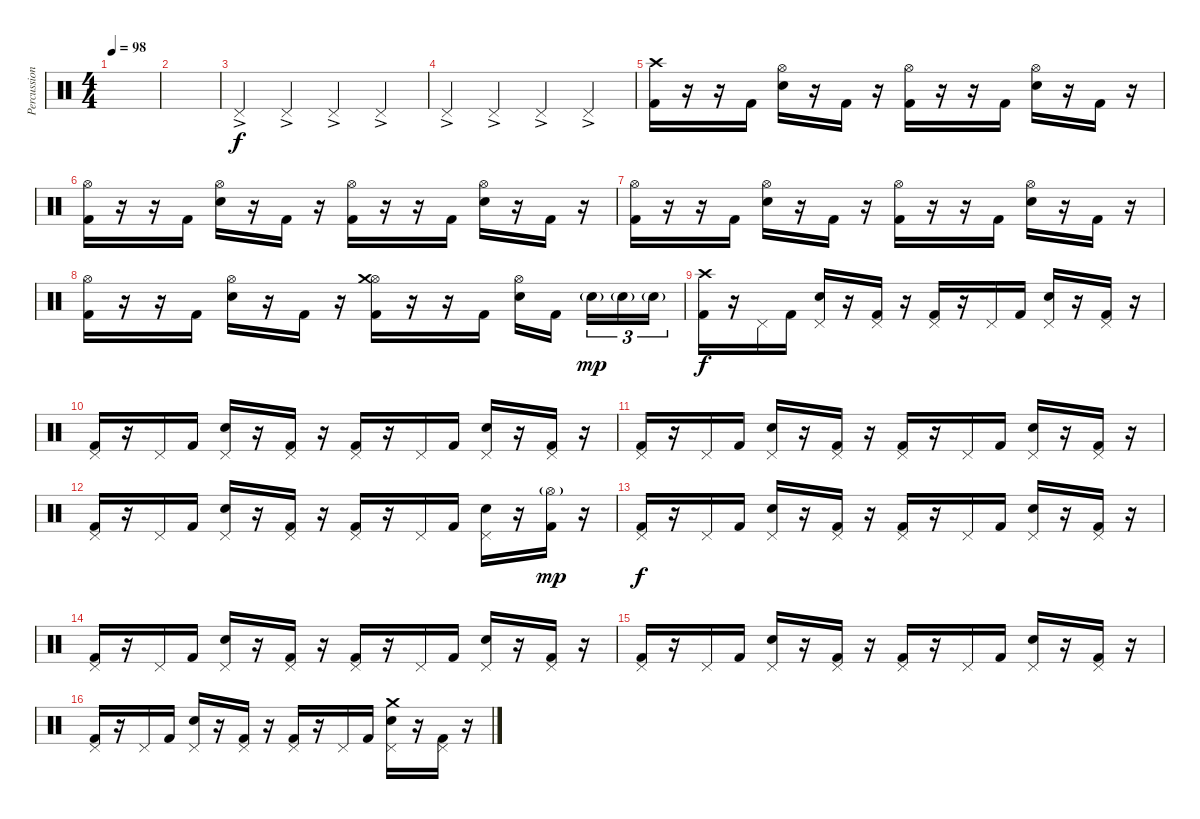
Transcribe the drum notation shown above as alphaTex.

\track ("Percussions" "Percussion") {instrument percussion}
\staff {score}
\articulation defaults
\ts (4 4)
\tempo 98
\clef neutral
\ks c
|
|
"Pedal Hi-Hat (hit)"{ac}.4 "Pedal Hi-Hat (hit)"{ac}.4 "Pedal Hi-Hat (hit)"{ac}.4 "Pedal Hi-Hat (hit)"{ac}.4 |
"Pedal Hi-Hat (hit)"{ac}.4 "Pedal Hi-Hat (hit)"{ac}.4 "Pedal Hi-Hat (hit)"{ac}.4 "Pedal Hi-Hat (hit)"{ac}.4 |
("Crash high (hit)" "Kick (hit) 2").16{dy f} r.16 r.16 "Kick (hit) 2".16 ("Hi-Hat (open)" "Snare (hit) 2").16 r.16 "Kick (hit) 2".16 r.16 ("Hi-Hat (open)" "Kick (hit) 2").16 r.16 r.16 "Kick (hit) 2".16 ("Hi-Hat (open)" "Snare (hit) 2").16 r.16 "Kick (hit) 2".16 r.16 |
("Hi-Hat (open)" "Kick (hit) 2").16 r.16 r.16 "Kick (hit) 2".16 ("Hi-Hat (open)" "Snare (hit) 2").16 r.16 "Kick (hit) 2".16 r.16 ("Hi-Hat (open)" "Kick (hit) 2").16 r.16 r.16 "Kick (hit) 2".16 ("Hi-Hat (open)" "Snare (hit) 2").16 r.16 "Kick (hit) 2".16 r.16 |
("Hi-Hat (open)" "Kick (hit) 2").16 r.16 r.16 "Kick (hit) 2".16 ("Hi-Hat (open)" "Snare (hit) 2").16 r.16 "Kick (hit) 2".16 r.16 ("Hi-Hat (open)" "Kick (hit) 2").16 r.16 r.16 "Kick (hit) 2".16 ("Hi-Hat (open)" "Snare (hit) 2").16 r.16 "Kick (hit) 2".16 r.16 |
("Hi-Hat (open)" "Kick (hit) 2").16 r.16 r.16 "Kick (hit) 2".16 ("Hi-Hat (open)" "Snare (hit) 2").16 r.16 "Kick (hit) 2".16 r.16 ("Hi-Hat (open)" "Crash medium (hit)" "Kick (hit) 2").16 r.16 r.16 "Kick (hit) 2".16 ("Hi-Hat (open)" "Snare (hit) 2").16 "Kick (hit) 2".16 "Snare (hit) 2"{g}.16{tu (3 2) dy mp} "Snare (hit) 2"{g}.16{tu (3 2)} "Snare (hit) 2"{g}.16{tu (3 2)} |
("Crash high (hit)" "Kick (hit) 2").16{dy f} r.16 "Pedal Hi-Hat (hit)".16 "Kick (hit) 2".16 ("Pedal Hi-Hat (hit)" "Snare (hit) 2").16 r.16 ("Pedal Hi-Hat (hit)" "Kick (hit) 2").16 r.16 ("Pedal Hi-Hat (hit)" "Kick (hit) 2").16 r.16 "Pedal Hi-Hat (hit)".16 "Kick (hit) 2".16 ("Pedal Hi-Hat (hit)" "Snare (hit) 2").16 r.16 ("Pedal Hi-Hat (hit)" "Kick (hit) 2").16 r.16 |
("Pedal Hi-Hat (hit)" "Kick (hit) 2").16 r.16 "Pedal Hi-Hat (hit)".16 "Kick (hit) 2".16 ("Pedal Hi-Hat (hit)" "Snare (hit) 2").16 r.16 ("Pedal Hi-Hat (hit)" "Kick (hit) 2").16 r.16 ("Pedal Hi-Hat (hit)" "Kick (hit) 2").16 r.16 "Pedal Hi-Hat (hit)".16 "Kick (hit) 2".16 ("Pedal Hi-Hat (hit)" "Snare (hit) 2").16 r.16 ("Pedal Hi-Hat (hit)" "Kick (hit) 2").16 r.16 |
("Pedal Hi-Hat (hit)" "Kick (hit) 2").16 r.16 "Pedal Hi-Hat (hit)".16 "Kick (hit) 2".16 ("Pedal Hi-Hat (hit)" "Snare (hit) 2").16 r.16 ("Pedal Hi-Hat (hit)" "Kick (hit) 2").16 r.16 ("Pedal Hi-Hat (hit)" "Kick (hit) 2").16 r.16 "Pedal Hi-Hat (hit)".16 "Kick (hit) 2".16 ("Pedal Hi-Hat (hit)" "Snare (hit) 2").16 r.16 ("Pedal Hi-Hat (hit)" "Kick (hit) 2").16 r.16 |
("Pedal Hi-Hat (hit)" "Kick (hit) 2").16 r.16 "Pedal Hi-Hat (hit)".16 "Kick (hit) 2".16 ("Pedal Hi-Hat (hit)" "Snare (hit) 2").16 r.16 ("Pedal Hi-Hat (hit)" "Kick (hit) 2").16 r.16 ("Pedal Hi-Hat (hit)" "Kick (hit) 2").16 r.16 "Pedal Hi-Hat (hit)".16 "Kick (hit) 2".16 ("Pedal Hi-Hat (hit)" "Snare (hit) 2").16 r.16 ("Hi-Hat (open)"{g} "Kick (hit) 2").16{dy mp} r.16 |
("Pedal Hi-Hat (hit)" "Kick (hit) 2").16{dy f} r.16 "Pedal Hi-Hat (hit)".16 "Kick (hit) 2".16 ("Pedal Hi-Hat (hit)" "Snare (hit) 2").16 r.16 ("Pedal Hi-Hat (hit)" "Kick (hit) 2").16 r.16 ("Pedal Hi-Hat (hit)" "Kick (hit) 2").16 r.16 "Pedal Hi-Hat (hit)".16 "Kick (hit) 2".16 ("Pedal Hi-Hat (hit)" "Snare (hit) 2").16 r.16 ("Pedal Hi-Hat (hit)" "Kick (hit) 2").16 r.16 |
("Pedal Hi-Hat (hit)" "Kick (hit) 2").16 r.16 "Pedal Hi-Hat (hit)".16 "Kick (hit) 2".16 ("Pedal Hi-Hat (hit)" "Snare (hit) 2").16 r.16 ("Pedal Hi-Hat (hit)" "Kick (hit) 2").16 r.16 ("Pedal Hi-Hat (hit)" "Kick (hit) 2").16 r.16 "Pedal Hi-Hat (hit)".16 "Kick (hit) 2".16 ("Pedal Hi-Hat (hit)" "Snare (hit) 2").16 r.16 ("Pedal Hi-Hat (hit)" "Kick (hit) 2").16 r.16 |
("Pedal Hi-Hat (hit)" "Kick (hit) 2").16 r.16 "Pedal Hi-Hat (hit)".16 "Kick (hit) 2".16 ("Pedal Hi-Hat (hit)" "Snare (hit) 2").16 r.16 ("Pedal Hi-Hat (hit)" "Kick (hit) 2").16 r.16 ("Pedal Hi-Hat (hit)" "Kick (hit) 2").16 r.16 "Pedal Hi-Hat (hit)".16 "Kick (hit) 2".16 ("Pedal Hi-Hat (hit)" "Snare (hit) 2").16 r.16 ("Pedal Hi-Hat (hit)" "Kick (hit) 2").16 r.16 |
("Pedal Hi-Hat (hit)" "Kick (hit) 2").16 r.16 "Pedal Hi-Hat (hit)".16 "Kick (hit) 2".16 ("Pedal Hi-Hat (hit)" "Snare (hit) 2").16 r.16 ("Pedal Hi-Hat (hit)" "Kick (hit) 2").16 r.16 ("Pedal Hi-Hat (hit)" "Kick (hit) 2").16 r.16 "Pedal Hi-Hat (hit)".16 "Kick (hit) 2".16 ("Pedal Hi-Hat (hit)" "Crash medium (hit)" "Snare (hit) 2").16 r.16 ("Pedal Hi-Hat (hit)" "Kick (hit) 2").16 r.16
